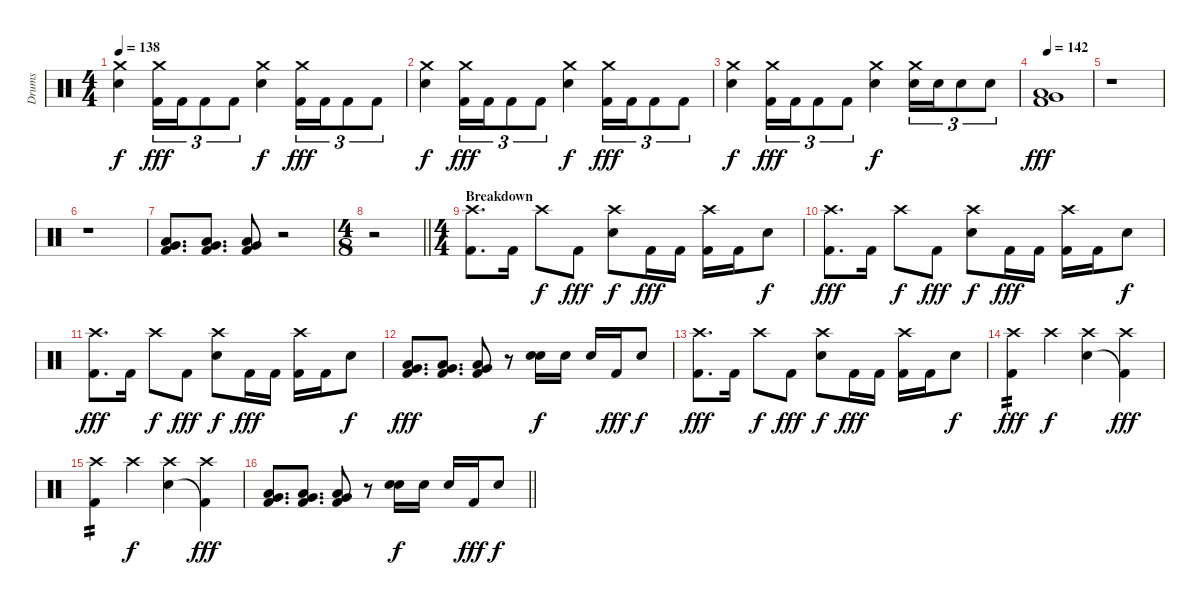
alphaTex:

\track ("Drums" "Drums") {instrument percussion}
\staff {score}
\articulation defaults
\ts (4 4)
\tempo 138
\clef neutral
\ks c
("Crash medium (hit)" "Electric Snare (hit)").4{dy f} ("Crash medium (hit)" "Kick (hit) 2").16{tu (3 2) dy fff} "Kick (hit) 2".16{tu (3 2)} "Kick (hit) 2".8{tu (3 2)} "Kick (hit) 2".8{tu (3 2)} ("Crash medium (hit)" "Electric Snare (hit)").4{dy f} ("Crash medium (hit)" "Kick (hit) 2").16{tu (3 2) dy fff} "Kick (hit) 2".16{tu (3 2)} "Kick (hit) 2".8{tu (3 2)} "Kick (hit) 2".8{tu (3 2)} |
("Crash medium (hit)" "Electric Snare (hit)").4{dy f} ("Crash medium (hit)" "Kick (hit) 2").16{tu (3 2) dy fff} "Kick (hit) 2".16{tu (3 2)} "Kick (hit) 2".8{tu (3 2)} "Kick (hit) 2".8{tu (3 2)} ("Crash medium (hit)" "Electric Snare (hit)").4{dy f} ("Crash medium (hit)" "Kick (hit) 2").16{tu (3 2) dy fff} "Kick (hit) 2".16{tu (3 2)} "Kick (hit) 2".8{tu (3 2)} "Kick (hit) 2".8{tu (3 2)} |
("Crash medium (hit)" "Electric Snare (hit)").4{dy f} ("Crash medium (hit)" "Kick (hit) 2").16{tu (3 2) dy fff} "Kick (hit) 2".16{tu (3 2)} "Kick (hit) 2".8{tu (3 2)} "Kick (hit) 2".8{tu (3 2)} ("Crash medium (hit)" "Electric Snare (hit)").4{dy f} ("Crash medium (hit)" "Electric Snare (hit)").16{tu (3 2)} "Electric Snare (hit)".16{tu (3 2)} "Electric Snare (hit)".8{tu (3 2)} "Electric Snare (hit)".8{tu (3 2)} |
\tempo 142
("Low Tom (hit)" "Very Low Tom (hit)" "Kick (hit) 2").1{dy fff} |
r.1 |
r.1 |
("Low Tom (hit)" "Very Low Tom (hit)" "Kick (hit) 2").8{d} ("Low Tom (hit)" "Very Low Tom (hit)" "Kick (hit) 2").8{d} ("Low Tom (hit)" "Very Low Tom (hit)" "Kick (hit) 2").8 r.2 |
\ts (4 8)
\barLineRight lightlight
r.2 |
\ts (4 4)
\section ("" "Breakdown")
("Crash high (hit)" "Kick (hit) 2").8{d} "Kick (hit) 2".16 "Crash high (hit)".8{dy f} "Kick (hit) 2".8{dy fff} ("Crash high (hit)" "Electric Snare (hit)").8{dy f} "Kick (hit) 2".16{dy fff} "Kick (hit) 2".16 ("Crash high (hit)" "Kick (hit) 2").16 "Kick (hit) 2".16 "Electric Snare (hit)".8{dy f} |
("Crash high (hit)" "Kick (hit) 2").8{d dy fff} "Kick (hit) 2".16 "Crash high (hit)".8{dy f} "Kick (hit) 2".8{dy fff} ("Crash high (hit)" "Electric Snare (hit)").8{dy f} "Kick (hit) 2".16{dy fff} "Kick (hit) 2".16 ("Crash high (hit)" "Kick (hit) 2").16 "Kick (hit) 2".16 "Electric Snare (hit)".8{dy f} |
("Crash high (hit)" "Kick (hit) 2").8{d dy fff} "Kick (hit) 2".16 "Crash high (hit)".8{dy f} "Kick (hit) 2".8{dy fff} ("Crash high (hit)" "Electric Snare (hit)").8{dy f} "Kick (hit) 2".16{dy fff} "Kick (hit) 2".16 ("Crash high (hit)" "Kick (hit) 2").16 "Kick (hit) 2".16 "Electric Snare (hit)".8{dy f} |
("Low Floor Tom (hit)" "Very Low Tom (hit)" "Kick (hit) 2").8{d dy fff} ("Low Floor Tom (hit)" "Very Low Tom (hit)" "Kick (hit) 2").8{d} ("Low Floor Tom (hit)" "Very Low Tom (hit)" "Kick (hit) 2").8 r.8 ("Electric Snare (hit)" "Electric Snare (hit)").16{bd 480 dy f} "Electric Snare (hit)".16 "Electric Snare (hit)".16 "Kick (hit) 2".16{dy fff} "Electric Snare (hit)".8{dy f} |
("Crash high (hit)" "Kick (hit) 2").8{d dy fff} "Kick (hit) 2".16 "Crash high (hit)".8{dy f} "Kick (hit) 2".8{dy fff} ("Crash high (hit)" "Electric Snare (hit)").8{dy f} "Kick (hit) 2".16{dy fff} "Kick (hit) 2".16 ("Crash high (hit)" "Kick (hit) 2").16 "Kick (hit) 2".16 "Electric Snare (hit)".8{dy f} |
("Crash high (hit)" "Kick (hit) 2").4{tp 2 dy fff} "Crash high (hit)".4{dy f} ("Crash high (hit)" "Electric Snare (hit)").4 ("Crash high (hit)" "Kick (hit) 2"{t}).4{dy fff} |
("Crash high (hit)" "Kick (hit) 2").4{tp 2} "Crash high (hit)".4{dy f} ("Crash high (hit)" "Electric Snare (hit)").4 ("Crash high (hit)" "Kick (hit) 2"{t}).4{dy fff} |
\barLineRight lightlight
("Low Floor Tom (hit)" "Very Low Tom (hit)" "Kick (hit) 2").8{d} ("Low Floor Tom (hit)" "Very Low Tom (hit)" "Kick (hit) 2").8{d} ("Low Floor Tom (hit)" "Very Low Tom (hit)" "Kick (hit) 2").8 r.8 ("Electric Snare (hit)" "Electric Snare (hit)").16{bd 480 dy f} "Electric Snare (hit)".16 "Electric Snare (hit)".16 "Kick (hit) 2".16{dy fff} "Electric Snare (hit)".8{dy f}
